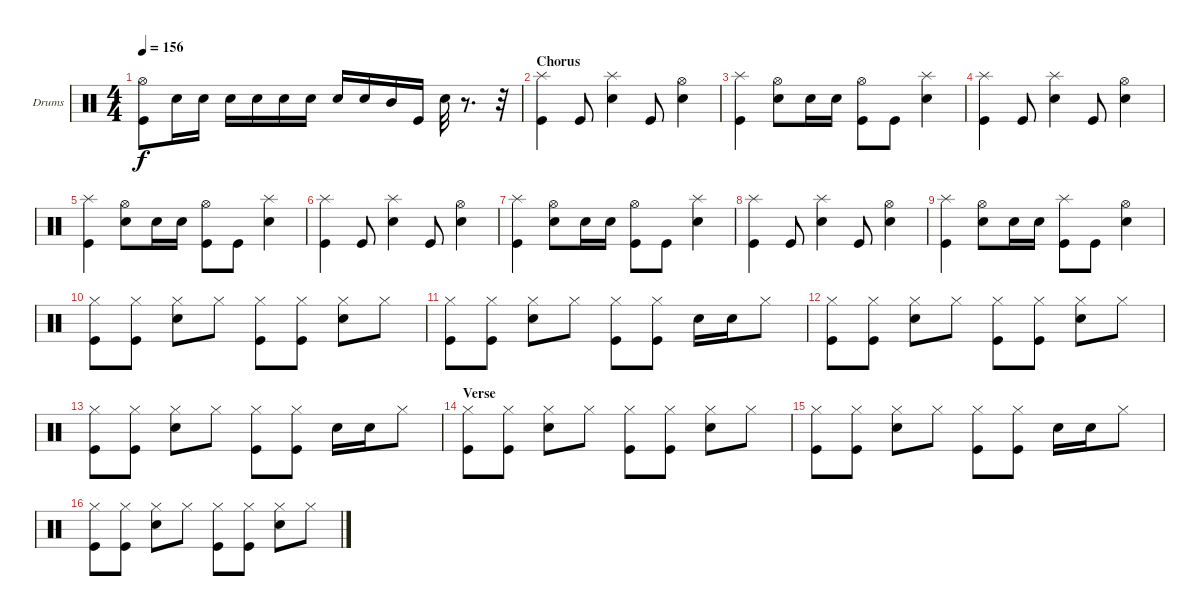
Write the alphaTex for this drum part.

\bracketExtendMode groupsimilarinstruments
\firstSystemTrackNameOrientation horizontal
\otherSystemsTrackNameOrientation horizontal
\track ("Drumkit" "Drums") {instrument percussion}
\staff {score}
\articulation defaults
\ts (4 4)
\tempo 156
\clef neutral
\scale
1.02648
\ks c
("Hi-Hat (open)" "Kick (hit)").8{dy f} "Snare (hit) 2".16 "Snare (hit) 2".16 "Snare (hit) 2".16 "Snare (hit) 2".16 "Snare (hit) 2".16 "Snare (hit) 2".16 "Snare (hit) 2".16 "Snare (hit) 2".16 "Mid Tom (hit)".16 "Kick (hit)".16 "Snare (hit) 2".32 r.8{d} r.32 |
\section ("" "Chorus")
\scale
0.973518 ("Splash (hit)" "Kick (hit)").4 "Kick (hit)".8 ("Splash (hit)" "Snare (hit) 2").4 "Kick (hit)".8 ("Hi-Hat (open)" "Snare (hit) 2").4 |
\scale
1.02648 ("Splash (hit)" "Kick (hit)").4 ("Hi-Hat (open)" "Snare (hit) 2").8 "Snare (hit) 2".16 "Snare (hit) 2".16 ("Hi-Hat (open)" "Kick (hit)").8 "Kick (hit)".8 ("Splash (hit)" "Snare (hit) 2").4 |
\scale
0.973518 ("Splash (hit)" "Kick (hit)").4 "Kick (hit)".8 ("Splash (hit)" "Snare (hit) 2").4 "Kick (hit)".8 ("Hi-Hat (open)" "Snare (hit) 2").4 |
\scale
1.02648 ("Splash (hit)" "Kick (hit)").4 ("Hi-Hat (open)" "Snare (hit) 2").8 "Snare (hit) 2".16 "Snare (hit) 2".16 ("Hi-Hat (open)" "Kick (hit)").8 "Kick (hit)".8 ("Splash (hit)" "Snare (hit) 2").4 |
\scale
0.973518 ("Splash (hit)" "Kick (hit)").4 "Kick (hit)".8 ("Splash (hit)" "Snare (hit) 2").4 "Kick (hit)".8 ("Hi-Hat (open)" "Snare (hit) 2").4 |
\scale
1.02648 ("Splash (hit)" "Kick (hit)").4 ("Hi-Hat (open)" "Snare (hit) 2").8 "Snare (hit) 2".16 "Snare (hit) 2".16 ("Hi-Hat (open)" "Kick (hit)").8 "Kick (hit)".8 ("Splash (hit)" "Snare (hit) 2").4 |
\scale
0.973518 ("Splash (hit)" "Kick (hit)").4 "Kick (hit)".8 ("Splash (hit)" "Snare (hit) 2").4 "Kick (hit)".8 ("Hi-Hat (open)" "Snare (hit) 2").4 |
\scale
1.02648 ("Splash (hit)" "Kick (hit)").4 ("Hi-Hat (open)" "Snare (hit) 2").8 "Snare (hit) 2".16 "Snare (hit) 2".16 ("Splash (hit)" "Kick (hit)").8 "Kick (hit)".8 ("Hi-Hat (open)" "Snare (hit) 2").4 |
\scale
0.973518 ("Hi-Hat (closed)" "Kick (hit)").8 ("Hi-Hat (closed)" "Kick (hit)").8 ("Hi-Hat (closed)" "Snare (hit) 2").8 "Hi-Hat (closed)".8 ("Hi-Hat (closed)" "Kick (hit)").8 ("Hi-Hat (closed)" "Kick (hit)").8 ("Hi-Hat (closed)" "Snare (hit) 2").8 "Hi-Hat (closed)".8 |
\scale
1.02648 ("Hi-Hat (closed)" "Kick (hit)").8 ("Hi-Hat (closed)" "Kick (hit)").8 ("Hi-Hat (closed)" "Snare (hit) 2").8 "Hi-Hat (closed)".8 ("Hi-Hat (closed)" "Kick (hit)").8 ("Hi-Hat (closed)" "Kick (hit)").8 "Snare (hit) 2".16 "Snare (hit) 2".16 "Hi-Hat (closed)".8 |
\scale
0.973518 ("Hi-Hat (closed)" "Kick (hit)").8 ("Hi-Hat (closed)" "Kick (hit)").8 ("Hi-Hat (closed)" "Snare (hit) 2").8 "Hi-Hat (closed)".8 ("Hi-Hat (closed)" "Kick (hit)").8 ("Hi-Hat (closed)" "Kick (hit)").8 ("Hi-Hat (closed)" "Snare (hit) 2").8 "Hi-Hat (closed)".8 |
\scale
1.02648 ("Hi-Hat (closed)" "Kick (hit)").8 ("Hi-Hat (closed)" "Kick (hit)").8 ("Hi-Hat (closed)" "Snare (hit) 2").8 "Hi-Hat (closed)".8 ("Hi-Hat (closed)" "Kick (hit)").8 ("Hi-Hat (closed)" "Kick (hit)").8 "Snare (hit) 2".16 "Snare (hit) 2".16 "Hi-Hat (closed)".8 |
\section ("" "Verse")
\scale
0.973518 ("Hi-Hat (closed)" "Kick (hit)").8 ("Hi-Hat (closed)" "Kick (hit)").8 ("Hi-Hat (closed)" "Snare (hit) 2").8 "Hi-Hat (closed)".8 ("Hi-Hat (closed)" "Kick (hit)").8 ("Hi-Hat (closed)" "Kick (hit)").8 ("Hi-Hat (closed)" "Snare (hit) 2").8 "Hi-Hat (closed)".8 |
\scale
1.02648 ("Hi-Hat (closed)" "Kick (hit)").8 ("Hi-Hat (closed)" "Kick (hit)").8 ("Hi-Hat (closed)" "Snare (hit) 2").8 "Hi-Hat (closed)".8 ("Hi-Hat (closed)" "Kick (hit)").8 ("Hi-Hat (closed)" "Kick (hit)").8 "Snare (hit) 2".16 "Snare (hit) 2".16 "Hi-Hat (closed)".8 |
\scale
0.973518 ("Hi-Hat (closed)" "Kick (hit)").8 ("Hi-Hat (closed)" "Kick (hit)").8 ("Hi-Hat (closed)" "Snare (hit) 2").8 "Hi-Hat (closed)".8 ("Hi-Hat (closed)" "Kick (hit)").8 ("Hi-Hat (closed)" "Kick (hit)").8 ("Hi-Hat (closed)" "Snare (hit) 2").8 "Hi-Hat (closed)".8
